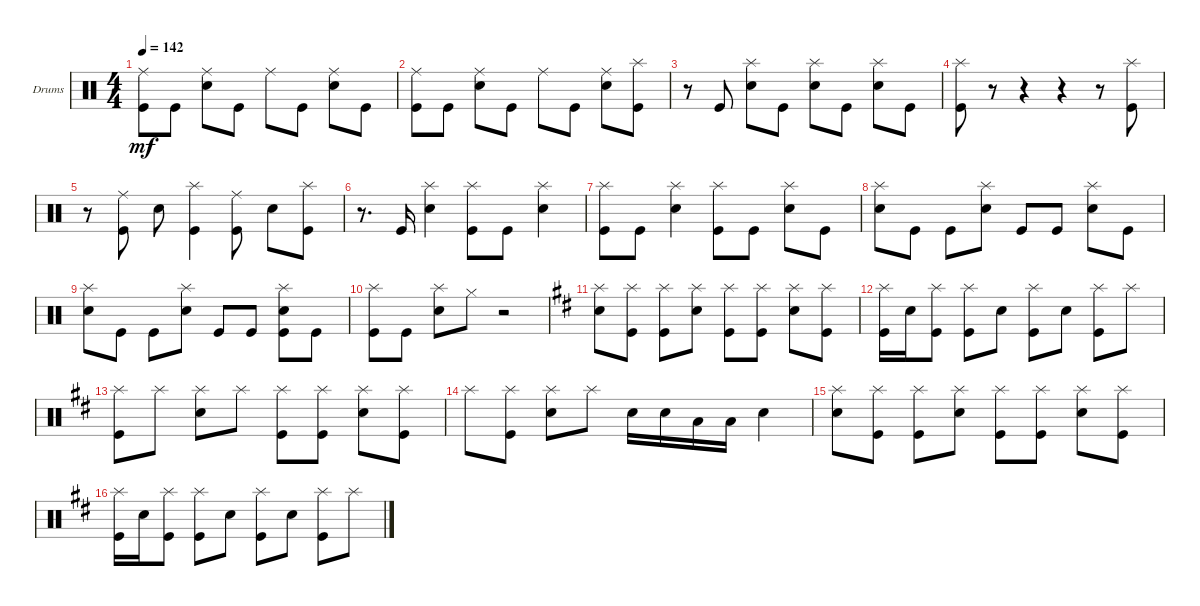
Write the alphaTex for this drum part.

\defaultSystemsLayout 4
\bracketExtendMode groupsimilarinstruments
\firstSystemTrackNameOrientation horizontal
\otherSystemsTrackNameOrientation horizontal
\track ("Drums" "Drums") {instrument percussion}
\staff {score}
\articulation defaults
\ts (4 4)
\tempo 142
\clef neutral
\ks c
("Ride (middle)" "Kick (hit)").8{dy mf} "Kick (hit)".8 ("Snare (hit) 2" "Ride (middle)").8 "Kick (hit)".8 "Ride (middle)".8 "Kick (hit)".8 ("Snare (hit) 2" "Ride (middle)").8 "Kick (hit)".8 |
("Ride (middle)" "Kick (hit)").8 "Kick (hit)".8 ("Snare (hit) 2" "Ride (middle)").8 "Kick (hit)".8 "Ride (middle)".8 "Kick (hit)".8 ("Snare (hit) 2" "Ride (middle)").8 ("Kick (hit)" "Splash (hit)").8 |
r.8 "Kick (hit)".8 ("Snare (hit) 2" "Splash (hit)").8 "Kick (hit)".8 ("Snare (hit) 2" "Splash (hit)").8 "Kick (hit)".8 ("Snare (hit) 2" "Splash (hit)").8 "Kick (hit)".8 |
("Splash (hit)" "Kick (hit)").8 r.8 r.4 r.4 r.8 ("Splash (hit)" "Kick (hit)").8 |
r.8 ("Kick (hit)" "Ride (middle)").8 "Snare (hit) 2".8 ("Kick (hit)" "Splash (hit)").4 ("Kick (hit)" "Ride (middle)").8 "Snare (hit) 2".8 ("Kick (hit)" "Splash (hit)").8 |
r.8{d} "Kick (hit)".16 ("Snare (hit) 2" "Splash (hit)").4 ("Kick (hit)" "Splash (hit)").8 "Kick (hit)".8 ("Snare (hit) 2" "Splash (hit)").4 |
("Kick (hit)" "Splash (hit)").8 "Kick (hit)".8 ("Snare (hit) 2" "Splash (hit)").4 ("Kick (hit)" "Splash (hit)").8 "Kick (hit)".8 ("Snare (hit) 2" "Splash (hit)").8 "Kick (hit)".8 |
("Snare (hit) 2" "Splash (hit)").8 "Kick (hit)".8 "Kick (hit)".8 ("Snare (hit) 2" "Splash (hit)").8 "Kick (hit)".8 "Kick (hit)".8 ("Snare (hit) 2" "Splash (hit)").8 "Kick (hit)".8 |
("Snare (hit) 2" "Splash (hit)").8 "Kick (hit)".8 "Kick (hit)".8 ("Snare (hit) 2" "Splash (hit)").8 "Kick (hit)".8 "Kick (hit)".8 ("Kick (hit)" "Splash (hit)" "Snare (hit) 2").8 "Kick (hit)".8 |
("Kick (hit)" "Splash (hit)").8 "Kick (hit)".8 ("Snare (hit) 2" "Splash (hit)").8 "Hi-Hat (closed)".8 r.2 |
\ks d
("Snare (hit) 2" "Splash (hit)").8 ("Kick (hit)" "Splash (hit)").8 ("Kick (hit)" "Splash (hit)").8 ("Snare (hit) 2" "Splash (hit)").8 ("Kick (hit)" "Splash (hit)").8 ("Kick (hit)" "Splash (hit)").8 ("Snare (hit) 2" "Splash (hit)").8 ("Kick (hit)" "Splash (hit)").8 |
("Splash (hit)" "Kick (hit)").16 "Snare (hit) 2".16 ("Splash (hit)" "Kick (hit)").8 ("Splash (hit)" "Kick (hit)").8 "Snare (hit) 2".8 ("Splash (hit)" "Kick (hit)").8 "Snare (hit) 2".8 ("Splash (hit)" "Kick (hit)").8 "Splash (hit)".8 |
("Splash (hit)" "Kick (hit)").8 "Splash (hit)".8 ("Splash (hit)" "Snare (hit) 2").8 "Splash (hit)".8 ("Splash (hit)" "Kick (hit)").8 ("Splash (hit)" "Kick (hit)").8 ("Splash (hit)" "Snare (hit) 2").8 ("Splash (hit)" "Kick (hit)").8 |
"Splash (hit)".8 ("Splash (hit)" "Kick (hit)").8 ("Splash (hit)" "Snare (hit) 2").8 "Splash (hit)".8 "Snare (hit) 2".16 "Snare (hit) 2".16 "Low Tom (hit)".16 "Low Tom (hit)".16 "Snare (hit) 2".4 |
("Snare (hit) 2" "Splash (hit)").8 ("Kick (hit)" "Splash (hit)").8 ("Kick (hit)" "Splash (hit)").8 ("Snare (hit) 2" "Splash (hit)").8 ("Kick (hit)" "Splash (hit)").8 ("Kick (hit)" "Splash (hit)").8 ("Snare (hit) 2" "Splash (hit)").8 ("Kick (hit)" "Splash (hit)").8 |
("Splash (hit)" "Kick (hit)").16 "Snare (hit) 2".16 ("Splash (hit)" "Kick (hit)").8 ("Splash (hit)" "Kick (hit)").8 "Snare (hit) 2".8 ("Splash (hit)" "Kick (hit)").8 "Snare (hit) 2".8 ("Splash (hit)" "Kick (hit)").8 "Splash (hit)".8
